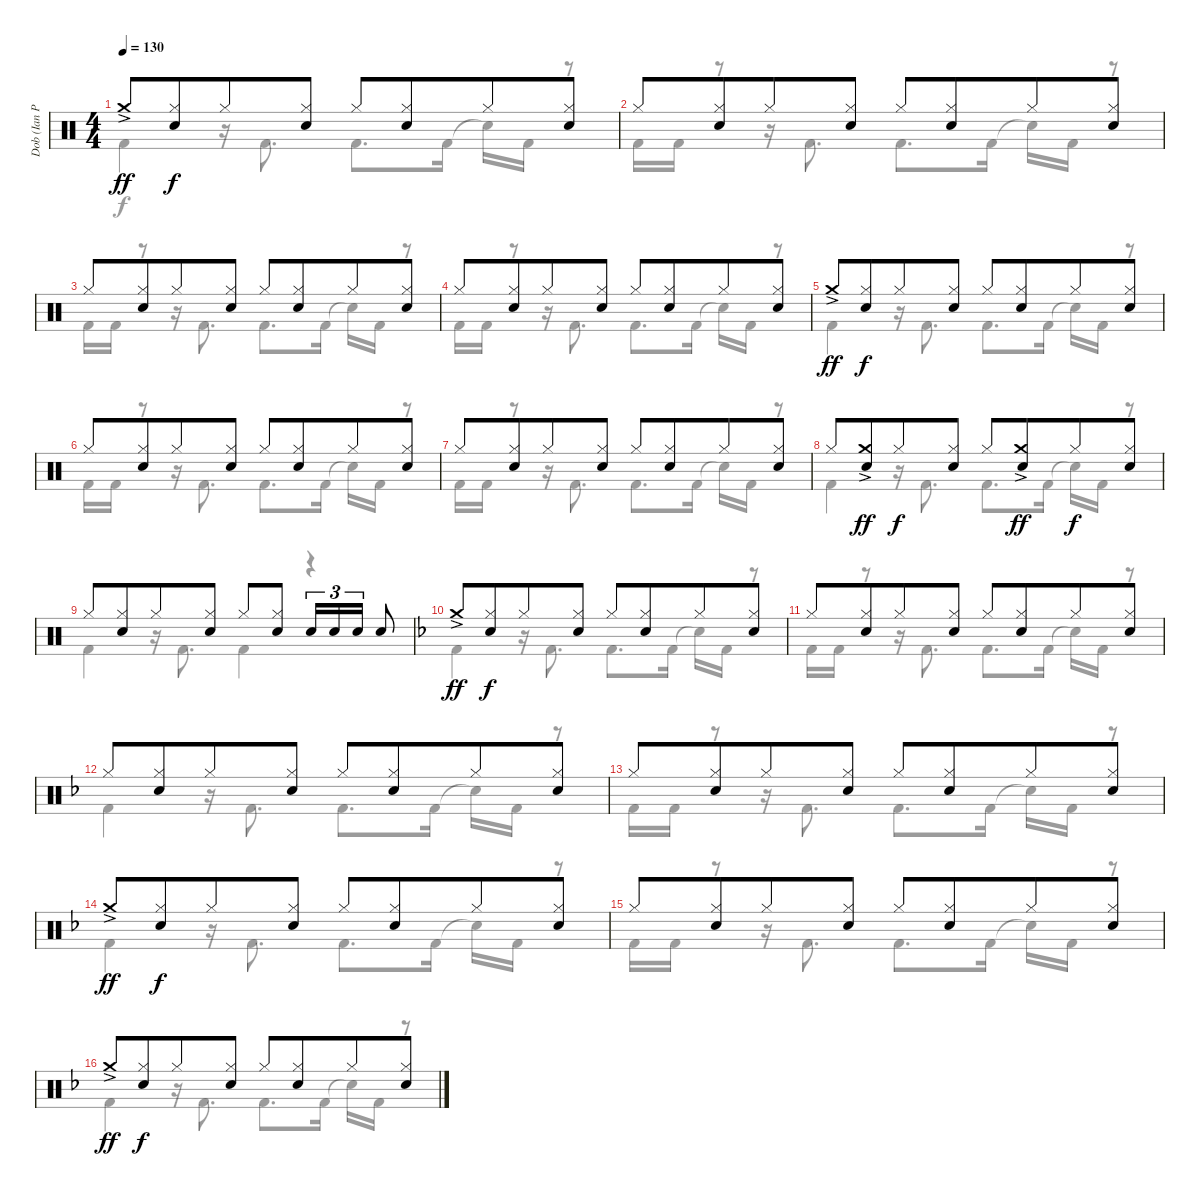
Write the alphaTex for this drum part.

\track ("Dob (Ian Paice)" "Dob (Ian P") {instrument percussion}
\staff {score}
\articulation defaults
\voice
\ts (4 4)
\tempo 130
\clef neutral
\ks c "Crash medium (hit)"{ac}.8{dy ff}
("Hi-Hat (closed)" "Electric Snare (hit)").8{dy f beam merge} "Hi-Hat (closed)".8 ("Hi-Hat (closed)" "Electric Snare (hit)").8 "Hi-Hat (closed)".8 ("Hi-Hat (closed)" "Electric Snare (hit)").8{beam merge} "Hi-Hat (closed)".8 ("Hi-Hat (closed)" "Electric Snare (hit)").8 |
"Hi-Hat (closed)".8 ("Hi-Hat (closed)" "Electric Snare (hit)").8{beam merge} "Hi-Hat (closed)".8 ("Hi-Hat (closed)" "Electric Snare (hit)").8 "Hi-Hat (closed)".8 ("Hi-Hat (closed)" "Electric Snare (hit)").8{beam merge} "Hi-Hat (closed)".8 ("Hi-Hat (closed)" "Electric Snare (hit)").8 |
"Hi-Hat (closed)".8 ("Hi-Hat (closed)" "Electric Snare (hit)").8{beam merge} "Hi-Hat (closed)".8 ("Hi-Hat (closed)" "Electric Snare (hit)").8 "Hi-Hat (closed)".8 ("Hi-Hat (closed)" "Electric Snare (hit)").8{beam merge} "Hi-Hat (closed)".8 ("Hi-Hat (closed)" "Electric Snare (hit)").8 |
"Hi-Hat (closed)".8 ("Hi-Hat (closed)" "Electric Snare (hit)").8{beam merge} "Hi-Hat (closed)".8 ("Hi-Hat (closed)" "Electric Snare (hit)").8 "Hi-Hat (closed)".8 ("Hi-Hat (closed)" "Electric Snare (hit)").8{beam merge} "Hi-Hat (closed)".8 ("Hi-Hat (closed)" "Electric Snare (hit)").8 |
"Crash medium (hit)"{ac}.8{dy ff} ("Hi-Hat (closed)" "Electric Snare (hit)").8{dy f beam merge} "Hi-Hat (closed)".8 ("Hi-Hat (closed)" "Electric Snare (hit)").8 "Hi-Hat (closed)".8 ("Hi-Hat (closed)" "Electric Snare (hit)").8{beam merge} "Hi-Hat (closed)".8 ("Hi-Hat (closed)" "Electric Snare (hit)").8 |
"Hi-Hat (closed)".8 ("Hi-Hat (closed)" "Electric Snare (hit)").8{beam merge} "Hi-Hat (closed)".8 ("Hi-Hat (closed)" "Electric Snare (hit)").8 "Hi-Hat (closed)".8 ("Hi-Hat (closed)" "Electric Snare (hit)").8{beam merge} "Hi-Hat (closed)".8 ("Hi-Hat (closed)" "Electric Snare (hit)").8 |
"Hi-Hat (closed)".8 ("Hi-Hat (closed)" "Electric Snare (hit)").8{beam merge} "Hi-Hat (closed)".8 ("Hi-Hat (closed)" "Electric Snare (hit)").8 "Hi-Hat (closed)".8 ("Hi-Hat (closed)" "Electric Snare (hit)").8{beam merge} "Hi-Hat (closed)".8 ("Hi-Hat (closed)" "Electric Snare (hit)").8 |
"Hi-Hat (closed)".8 ("Crash medium (hit)"{ac} "Electric Snare (hit)").8{dy ff beam merge} "Hi-Hat (closed)".8{dy f} ("Hi-Hat (closed)" "Electric Snare (hit)").8 "Hi-Hat (closed)".8 ("Crash medium (hit)"{ac} "Electric Snare (hit)").8{dy ff beam merge} "Hi-Hat (closed)".8{dy f} ("Hi-Hat (closed)" "Electric Snare (hit)").8 |
"Hi-Hat (closed)".8 ("Hi-Hat (closed)" "Electric Snare (hit)").8{beam merge} "Hi-Hat (closed)".8 ("Hi-Hat (closed)" "Electric Snare (hit)").8 "Hi-Hat (closed)".8 ("Hi-Hat (closed)" "Electric Snare (hit)").8 "Electric Snare (hit)".16{tu (3 2)} "Electric Snare (hit)".16{tu (3 2)} "Electric Snare (hit)".16{tu (3 2)} "Electric Snare (hit)".8 |
\ks f "Crash medium (hit)"{ac}.8{dy ff}
("Hi-Hat (closed)" "Electric Snare (hit)").8{dy f beam merge} "Hi-Hat (closed)".8 ("Hi-Hat (closed)" "Electric Snare (hit)").8 "Hi-Hat (closed)".8 ("Hi-Hat (closed)" "Electric Snare (hit)").8{beam merge} "Hi-Hat (closed)".8 ("Hi-Hat (closed)" "Electric Snare (hit)").8 |
"Hi-Hat (closed)".8 ("Hi-Hat (closed)" "Electric Snare (hit)").8{beam merge} "Hi-Hat (closed)".8 ("Hi-Hat (closed)" "Electric Snare (hit)").8 "Hi-Hat (closed)".8 ("Hi-Hat (closed)" "Electric Snare (hit)").8{beam merge} "Hi-Hat (closed)".8 ("Hi-Hat (closed)" "Electric Snare (hit)").8 |
"Hi-Hat (closed)".8 ("Hi-Hat (closed)" "Electric Snare (hit)").8{beam merge} "Hi-Hat (closed)".8 ("Hi-Hat (closed)" "Electric Snare (hit)").8 "Hi-Hat (closed)".8 ("Hi-Hat (closed)" "Electric Snare (hit)").8{beam merge} "Hi-Hat (closed)".8 ("Hi-Hat (closed)" "Electric Snare (hit)").8 |
"Hi-Hat (closed)".8 ("Hi-Hat (closed)" "Electric Snare (hit)").8{beam merge} "Hi-Hat (closed)".8 ("Hi-Hat (closed)" "Electric Snare (hit)").8 "Hi-Hat (closed)".8 ("Hi-Hat (closed)" "Electric Snare (hit)").8{beam merge} "Hi-Hat (closed)".8 ("Hi-Hat (closed)" "Electric Snare (hit)").8 |
"Crash medium (hit)"{ac}.8{dy ff} ("Hi-Hat (closed)" "Electric Snare (hit)").8{dy f beam merge} "Hi-Hat (closed)".8 ("Hi-Hat (closed)" "Electric Snare (hit)").8 "Hi-Hat (closed)".8 ("Hi-Hat (closed)" "Electric Snare (hit)").8{beam merge} "Hi-Hat (closed)".8 ("Hi-Hat (closed)" "Electric Snare (hit)").8 |
"Hi-Hat (closed)".8 ("Hi-Hat (closed)" "Electric Snare (hit)").8{beam merge} "Hi-Hat (closed)".8 ("Hi-Hat (closed)" "Electric Snare (hit)").8 "Hi-Hat (closed)".8 ("Hi-Hat (closed)" "Electric Snare (hit)").8{beam merge} "Hi-Hat (closed)".8 ("Hi-Hat (closed)" "Electric Snare (hit)").8 |
"Crash medium (hit)"{ac}.8{dy ff} ("Hi-Hat (closed)" "Electric Snare (hit)").8{dy f beam merge} "Hi-Hat (closed)".8 ("Hi-Hat (closed)" "Electric Snare (hit)").8 "Hi-Hat (closed)".8 ("Hi-Hat (closed)" "Electric Snare (hit)").8{beam merge} "Hi-Hat (closed)".8 ("Hi-Hat (closed)" "Electric Snare (hit)").8
\voice
\clef neutral
\ottava regular
\simile none
\ks c "Kick (hit) 2".4{dy f}
r.16 "Kick (hit) 2".8{d} "Kick (hit) 2".8{d} "Kick (hit) 2".16 "Snare (hit)"{t}.16 "Kick (hit) 2".16 r.8 |
"Kick (hit) 2".16 "Kick (hit) 2".16 r.8 r.16 "Kick (hit) 2".8{d} "Kick (hit) 2".8{d} "Kick (hit) 2".16 "Snare (hit)"{t}.16 "Kick (hit) 2".16 r.8 |
"Kick (hit) 2".16 "Kick (hit) 2".16 r.8 r.16 "Kick (hit) 2".8{d} "Kick (hit) 2".8{d} "Kick (hit) 2".16 "Snare (hit)"{t}.16 "Kick (hit) 2".16 r.8 |
"Kick (hit) 2".16 "Kick (hit) 2".16 r.8 r.16 "Kick (hit) 2".8{d} "Kick (hit) 2".8{d} "Kick (hit) 2".16 "Snare (hit)"{t}.16 "Kick (hit) 2".16 r.8 |
"Kick (hit) 2".4 r.16 "Kick (hit) 2".8{d} "Kick (hit) 2".8{d} "Kick (hit) 2".16 "Snare (hit)"{t}.16 "Kick (hit) 2".16 r.8 |
"Kick (hit) 2".16 "Kick (hit) 2".16 r.8 r.16 "Kick (hit) 2".8{d} "Kick (hit) 2".8{d} "Kick (hit) 2".16 "Snare (hit)"{t}.16 "Kick (hit) 2".16 r.8 |
"Kick (hit) 2".16 "Kick (hit) 2".16 r.8 r.16 "Kick (hit) 2".8{d} "Kick (hit) 2".8{d} "Kick (hit) 2".16 "Snare (hit)"{t}.16 "Kick (hit) 2".16 r.8 |
"Kick (hit) 2".4 r.16 "Kick (hit) 2".8{d} "Kick (hit) 2".8{d} "Kick (hit) 2".16 "Snare (hit)"{t}.16 "Kick (hit) 2".16 r.8 |
"Kick (hit) 2".4 r.16 "Kick (hit) 2".8{d} "Kick (hit) 2".4 r.4 |
\ks f "Kick (hit) 2".4
r.16 "Kick (hit) 2".8{d} "Kick (hit) 2".8{d} "Kick (hit) 2".16 "Snare (hit)"{t}.16 "Kick (hit) 2".16 r.8 |
"Kick (hit) 2".16 "Kick (hit) 2".16 r.8 r.16 "Kick (hit) 2".8{d} "Kick (hit) 2".8{d} "Kick (hit) 2".16 "Snare (hit)"{t}.16 "Kick (hit) 2".16 r.8 |
"Kick (hit) 2".4 r.16 "Kick (hit) 2".8{d} "Kick (hit) 2".8{d} "Kick (hit) 2".16 "Snare (hit)"{t}.16 "Kick (hit) 2".16 r.8 |
"Kick (hit) 2".16 "Kick (hit) 2".16 r.8 r.16 "Kick (hit) 2".8{d} "Kick (hit) 2".8{d} "Kick (hit) 2".16 "Snare (hit)"{t}.16 "Kick (hit) 2".16 r.8 |
"Kick (hit) 2".4 r.16 "Kick (hit) 2".8{d} "Kick (hit) 2".8{d} "Kick (hit) 2".16 "Snare (hit)"{t}.16 "Kick (hit) 2".16 r.8 |
"Kick (hit) 2".16 "Kick (hit) 2".16 r.8 r.16 "Kick (hit) 2".8{d} "Kick (hit) 2".8{d} "Kick (hit) 2".16 "Snare (hit)"{t}.16 "Kick (hit) 2".16 r.8 |
"Kick (hit) 2".4 r.16 "Kick (hit) 2".8{d} "Kick (hit) 2".8{d} "Kick (hit) 2".16 "Snare (hit)"{t}.16 "Kick (hit) 2".16 r.8
